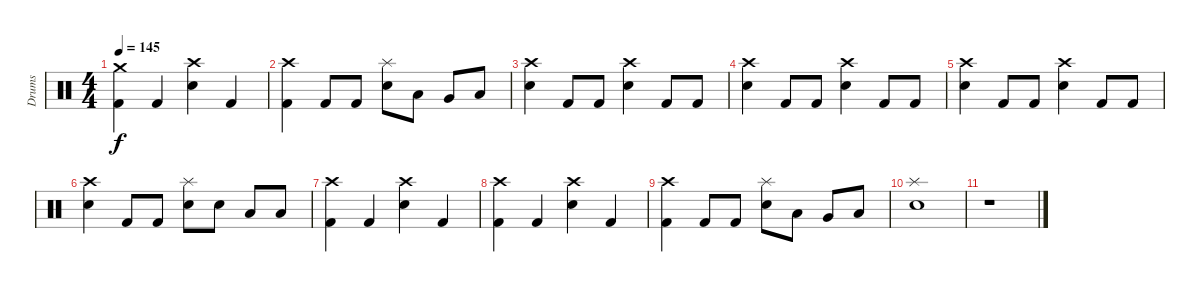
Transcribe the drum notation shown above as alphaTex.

\track ("Drums" "Drums") {instrument percussion}
\staff {score}
\articulation defaults
\ts (4 4)
\tempo 145
\clef neutral
\ks c
("Crash medium (hit)" "Kick (hit) 2").4{dy f} "Kick (hit) 2".4 ("Crash high (hit)" "Snare (hit) 2").4 "Kick (hit) 2".4 |
("Crash high (hit)" "Kick (hit) 2").4 "Kick (hit) 2".8 "Kick (hit) 2".8 ("Splash (hit)" "Snare (hit) 2").8 "Low Tom (hit)".8 "Very Low Tom (hit)".8 "Low Floor Tom (hit)".8 |
("Crash high (hit)" "Snare (hit) 2").4 "Kick (hit) 2".8 "Kick (hit) 2".8 ("Crash high (hit)" "Snare (hit) 2").4 "Kick (hit) 2".8 "Kick (hit) 2".8 |
("Crash high (hit)" "Snare (hit) 2").4 "Kick (hit) 2".8 "Kick (hit) 2".8 ("Crash high (hit)" "Snare (hit) 2").4 "Kick (hit) 2".8 "Kick (hit) 2".8 |
("Crash high (hit)" "Snare (hit) 2").4 "Kick (hit) 2".8 "Kick (hit) 2".8 ("Crash high (hit)" "Snare (hit) 2").4 "Kick (hit) 2".8 "Kick (hit) 2".8 |
("Crash high (hit)" "Snare (hit) 2").4 "Kick (hit) 2".8 "Kick (hit) 2".8 ("Splash (hit)" "Snare (hit) 2").8 "Snare (hit) 2".8 "Low Tom (hit)".8 "Low Tom (hit)".8 |
("Crash high (hit)" "Kick (hit) 2").4 "Kick (hit) 2".4 ("Crash high (hit)" "Snare (hit) 2").4 "Kick (hit) 2".4 |
("Crash high (hit)" "Kick (hit) 2").4 "Kick (hit) 2".4 ("Crash high (hit)" "Snare (hit) 2").4 "Kick (hit) 2".4 |
("Crash high (hit)" "Kick (hit) 2").4 "Kick (hit) 2".8 "Kick (hit) 2".8 ("Splash (hit)" "Snare (hit) 2").8 "Low Tom (hit)".8 "Very Low Tom (hit)".8 "Low Floor Tom (hit)".8 |
("Splash (hit)" "Snare (hit) 2").1 |
r.1
